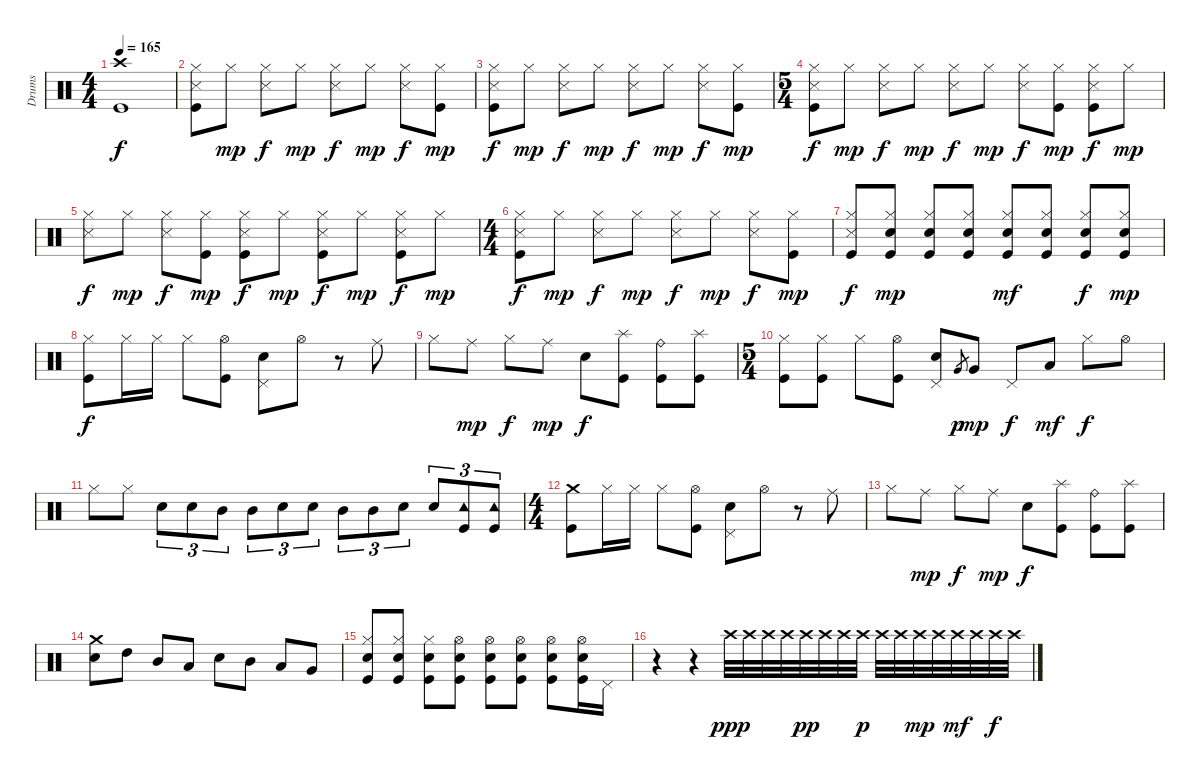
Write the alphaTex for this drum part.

\track ("Drums" "Drums") {instrument percussion}
\staff {score}
\articulation defaults
\ts (4 4)
\tempo 165
\clef neutral
\ks c
("Crash high (hit)" "Kick (hit)").1{dy f} |
("Hi-Hat (closed)" "Snare (side stick) 3" "Kick (hit)").8 "Hi-Hat (closed)".8{dy mp} ("Hi-Hat (closed)" "Snare (side stick) 3").8{dy f} "Hi-Hat (closed)".8{dy mp} ("Hi-Hat (closed)" "Snare (side stick) 3").8{dy f} "Hi-Hat (closed)".8{dy mp} ("Hi-Hat (closed)" "Snare (side stick) 3").8{dy f} ("Hi-Hat (closed)" "Kick (hit)").8{dy mp} |
("Hi-Hat (closed)" "Snare (side stick) 3" "Kick (hit)").8{dy f} "Hi-Hat (closed)".8{dy mp} ("Hi-Hat (closed)" "Snare (side stick) 3").8{dy f} "Hi-Hat (closed)".8{dy mp} ("Hi-Hat (closed)" "Snare (side stick) 3").8{dy f} "Hi-Hat (closed)".8{dy mp} ("Hi-Hat (closed)" "Snare (side stick) 3").8{dy f} ("Hi-Hat (closed)" "Kick (hit)").8{dy mp} |
\ts (5 4)
("Hi-Hat (closed)" "Snare (side stick) 3" "Kick (hit)").8{dy f} "Hi-Hat (closed)".8{dy mp} ("Hi-Hat (closed)" "Snare (side stick) 3").8{dy f} "Hi-Hat (closed)".8{dy mp} ("Hi-Hat (closed)" "Snare (side stick) 3").8{dy f} "Hi-Hat (closed)".8{dy mp} ("Hi-Hat (closed)" "Snare (side stick) 3").8{dy f} ("Hi-Hat (closed)" "Kick (hit)").8{dy mp} ("Hi-Hat (closed)" "Snare (side stick) 3" "Kick (hit)").8{dy f} "Hi-Hat (closed)".8{dy mp} |
("Hi-Hat (closed)" "Snare (side stick) 3").8{dy f} "Hi-Hat (closed)".8{dy mp} ("Hi-Hat (closed)" "Snare (side stick) 3").8{dy f} ("Hi-Hat (closed)" "Kick (hit)").8{dy mp} ("Hi-Hat (closed)" "Snare (side stick) 3" "Kick (hit)").8{dy f} "Hi-Hat (closed)".8{dy mp} ("Hi-Hat (closed)" "Snare (side stick) 3" "Kick (hit)").8{dy f} "Hi-Hat (closed)".8{dy mp} ("Hi-Hat (closed)" "Snare (side stick) 3" "Kick (hit)").8{dy f} "Hi-Hat (closed)".8{dy mp} |
\ts (4 4)
("Hi-Hat (closed)" "Snare (side stick) 3" "Kick (hit)").8{dy f} "Hi-Hat (closed)".8{dy mp} ("Hi-Hat (closed)" "Snare (side stick) 3").8{dy f} "Hi-Hat (closed)".8{dy mp} ("Hi-Hat (closed)" "Snare (side stick) 3").8{dy f} "Hi-Hat (closed)".8{dy mp} ("Hi-Hat (closed)" "Snare (side stick) 3").8{dy f} ("Hi-Hat (closed)" "Kick (hit)").8{dy mp} |
("Hi-Hat (closed)" "Snare (side stick) 3" "Kick (hit)").8{dy f} ("Hi-Hat (closed)" "Electric Snare (hit)" "Kick (hit)").8{dy mp} ("Hi-Hat (closed)" "Electric Snare (hit)" "Kick (hit)").8 ("Hi-Hat (closed)" "Electric Snare (hit)" "Kick (hit)").8 ("Hi-Hat (closed)" "Electric Snare (hit)" "Kick (hit)").8{dy mf} ("Hi-Hat (closed)" "Electric Snare (hit)" "Kick (hit)").8 ("Hi-Hat (closed)" "Electric Snare (hit)" "Kick (hit)").8{dy f} ("Hi-Hat (closed)" "Electric Snare (hit)" "Kick (hit)").8{dy mp} |
("Hi-Hat (closed)" "Kick (hit)").8{dy f} "Hi-Hat (closed)".16 "Hi-Hat (closed)".16 "Hi-Hat (closed)".8 ("Hi-Hat (open)" "Kick (hit)").8 ("Pedal Hi-Hat (hit)" "Electric Snare (hit)").8 "Hi-Hat (open)".8 r.8 "Ride (middle)".8 |
"Hi-Hat (closed)".8 "Ride (middle)".8{dy mp} "Hi-Hat (closed)".8{dy f} "Ride (middle)".8{dy mp} "Electric Snare (hit)".8{dy f} ("Splash (hit)" "Kick (hit)").8 ("Ride (bell)" "Kick (hit)").8 ("Splash (hit)" "Kick (hit)").8 |
\ts (5 4)
("Hi-Hat (closed)" "Kick (hit)").8 ("Hi-Hat (closed)" "Kick (hit)").8 "Hi-Hat (closed)".8 ("Hi-Hat (open)" "Kick (hit)").8 ("Pedal Hi-Hat (hit)" "Electric Snare (hit)").8 "Very Low Tom (hit)".8{gr dy p} "Very Low Tom (hit)".8{dy mp} "Pedal Hi-Hat (hit)".8{dy f} "Low Floor Tom (hit)".8{dy mf} "Hi-Hat (closed)".8{dy f} "Hi-Hat (open)".8 |
"Hi-Hat (closed)".8 "Hi-Hat (closed)".8 "Electric Snare (hit)".8{tu (3 2)} "Electric Snare (hit)".8{tu (3 2)} "Mid Tom (hit)".8{tu (3 2)} "Mid Tom (hit)".8{tu (3 2)} "Electric Snare (hit)".8{tu (3 2)} "Electric Snare (hit)".8{tu (3 2)} "Mid Tom (hit)".8{tu (3 2)} "Mid Tom (hit)".8{tu (3 2)} "Electric Snare (hit)".8{tu (3 2)} "Electric Snare (hit)".8{tu (3 2)} ("Tambourine (hit)" "Kick (hit)").8{tu (3 2)} ("Tambourine (hit)" "Kick (hit)").8{tu (3 2)} |
\ts (4 4)
("Crash medium (hit)" "Kick (hit)").8 "Hi-Hat (closed)".16 "Hi-Hat (closed)".16 "Hi-Hat (closed)".8 ("Hi-Hat (open)" "Kick (hit)").8 ("Pedal Hi-Hat (hit)" "Electric Snare (hit)").8 "Hi-Hat (open)".8 r.8 "Ride (middle)".8 |
"Hi-Hat (closed)".8 "Ride (middle)".8{dy mp} "Hi-Hat (closed)".8{dy f} "Ride (middle)".8{dy mp} "Electric Snare (hit)".8{dy f} ("Splash (hit)" "Kick (hit)").8 ("Ride (bell)" "Kick (hit)").8 ("Splash (hit)" "Kick (hit)").8 |
("Crash medium (hit)" "Electric Snare (hit)").8 "High Tom (hit)".8 "Mid Tom (hit)".8 "Low Tom (hit)".8 "Electric Snare (hit)".8 "Mid Tom (hit)".8 "Low Tom (hit)".8 "Very Low Tom (hit)".8 |
("Hi-Hat (closed)" "Electric Snare (hit)" "Kick (hit)").8 ("Hi-Hat (closed)" "Electric Snare (hit)" "Kick (hit)").8 ("Hi-Hat (closed)" "Electric Snare (hit)" "Kick (hit)").8 ("Hi-Hat (open)" "Electric Snare (hit)" "Kick (hit)").8 ("Hi-Hat (open)" "Electric Snare (hit)" "Kick (hit)").8 ("Hi-Hat (open)" "Electric Snare (hit)" "Kick (hit)").8 ("Hi-Hat (open)" "Electric Snare (hit)" "Kick (hit)").8 ("Hi-Hat (open)" "Electric Snare (hit)" "Kick (hit)").16 "Pedal Hi-Hat (hit)".16 |
r.4 r.4 "Crash high (hit)".32{dy ppp} "Crash high (hit)".32 "Crash high (hit)".32 "Crash high (hit)".32 "Crash high (hit)".32{dy pp} "Crash high (hit)".32 "Crash high (hit)".32 "Crash high (hit)".32{dy p} "Crash high (hit)".32 "Crash high (hit)".32 "Crash high (hit)".32{dy mp} "Crash high (hit)".32 "Crash high (hit)".32{dy mf} "Crash high (hit)".32 "Crash high (hit)".32{dy f} "Crash high (hit)".32
